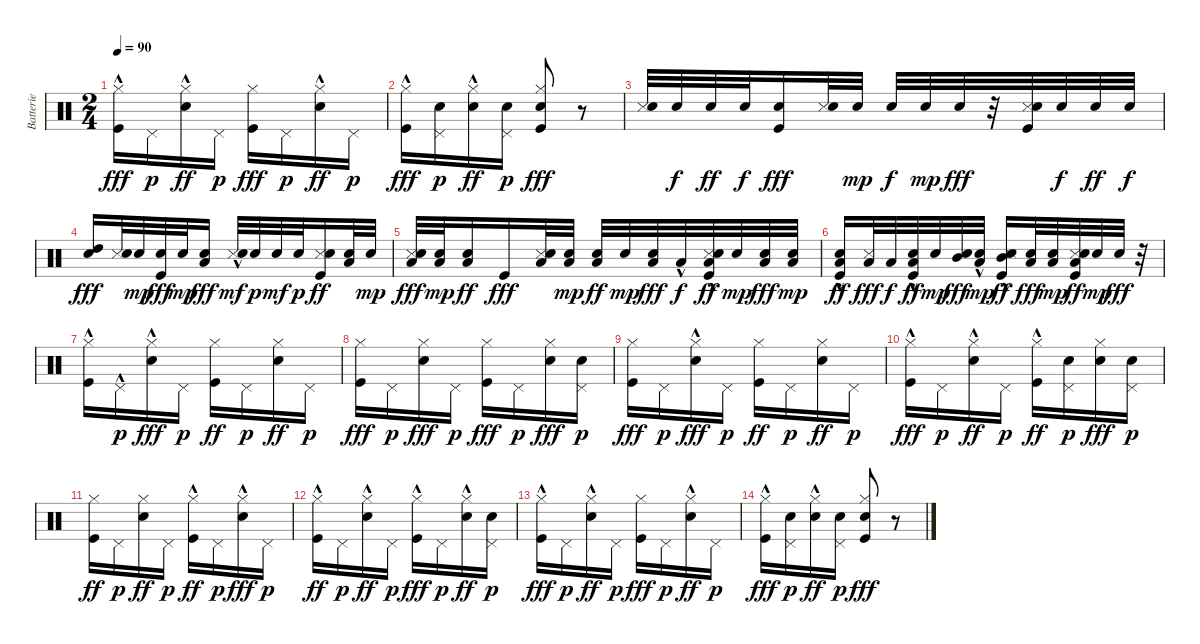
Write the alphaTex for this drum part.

\track ("Batterie" "Batterie") {instrument percussion}
\staff {score}
\articulation defaults
\ts (2 4)
\tempo 90
\clef neutral
\ks c
("Kick (hit)" "Hi-Hat (closed)"{hac}).16{dy fff} "Pedal Hi-Hat (hit)".16{dy p} ("Snare (hit) 2" "Hi-Hat (closed)"{hac}).16{dy ff} "Pedal Hi-Hat (hit)".16{dy p} ("Kick (hit)" "Hi-Hat (closed)").16{dy fff} "Pedal Hi-Hat (hit)".16{dy p} ("Snare (hit) 2" "Hi-Hat (closed)"{hac}).16{dy ff} "Pedal Hi-Hat (hit)".16{dy p} |
("Kick (hit)" "Hi-Hat (closed)"{hac}).16{dy fff} ("Snare (hit) 2" "Pedal Hi-Hat (hit)").16{dy p} ("Snare (hit) 2" "Hi-Hat (closed)"{hac}).16{dy ff} ("Snare (hit) 2" "Pedal Hi-Hat (hit)").16{dy p} ("Kick (hit)" "Snare (hit) 2" "Hi-Hat (closed)").8{dy fff} r.8 |
("Snare (side stick) 3" "Snare (hit) 2").32 "Snare (hit) 2".32{dy f} "Snare (hit) 2".32{dy ff} "Snare (hit) 2".32{dy f} ("Kick (hit)" "Snare (hit) 2").16{dy fff} ("Snare (side stick) 3" "Snare (hit) 2").32 "Snare (hit) 2".32{dy mp} "Snare (hit) 2".32{dy f} "Snare (hit) 2".32{dy mp} "Snare (hit) 2".32{dy fff} r.32 ("Kick (hit)" "Snare (side stick) 3" "Snare (hit) 2").32 "Snare (hit) 2".32{dy f} "Snare (hit) 2".32{dy ff} "Snare (hit) 2".32{dy f} |
("Snare (hit) 2" "High Tom (hit)").16{dy fff} ("Snare (side stick) 3" "Snare (hit) 2").32 "Snare (hit) 2".32{dy mp} ("Kick (hit)" "Snare (hit) 2").32{dy fff} "Snare (hit) 2".32{dy mp} ("Snare (hit) 2" "Low Tom (hit)").16{dy fff} ("Snare (side stick) 3"{hac} "Snare (hit) 2").32{dy mf} "Snare (hit) 2".32{dy p} "Snare (hit) 2".32{dy mf} "Snare (hit) 2".32{dy p} ("Kick (hit)" "Snare (side stick) 3" "Snare (hit) 2").16{dy ff} ("Snare (hit) 2" "Low Tom (hit)").32 "Snare (hit) 2".32{dy mp} |
("Snare (side stick) 3" "Snare (hit) 2" "Low Floor Tom (hit)").32{dy fff} ("Snare (hit) 2" "Low Tom (hit)").32{dy mp} ("Snare (hit) 2" "Low Floor Tom (hit)").16{dy ff} "Kick (hit)".16{dy fff} ("Snare (side stick) 3" "Snare (hit) 2" "Low Tom (hit)").32 ("Snare (hit) 2" "Low Tom (hit)").32{dy mp} ("Snare (hit) 2" "Low Tom (hit)").32{dy ff} "Snare (hit) 2".32{dy mp} ("Snare (hit) 2" "Low Floor Tom (hit)").32{dy fff} "Low Floor Tom (hit)"{hac}.32{dy f} ("Kick (hit)"{hac} "Snare (side stick) 3" "Snare (hit) 2" "Low Tom (hit)").32{dy ff} "Snare (hit) 2".32{dy mp} ("Snare (hit) 2" "Low Tom (hit)").32{dy fff} ("Snare (hit) 2" "Low Tom (hit)").32{dy mp} |
("Kick (hit)"{hac} "Snare (hit) 2" "Low Tom (hit)").16{dy ff} ("Snare (side stick) 3" "Low Floor Tom (hit)").32{dy fff} "Low Floor Tom (hit)".32{dy f} ("Kick (hit)"{hac} "Snare (hit) 2" "Low Floor Tom (hit)").32{dy ff} "Snare (hit) 2".32{dy mp} ("Snare (hit) 2" "Mid Tom (hit)").32{dy fff} ("Snare (hit) 2" "Low Tom (hit)"{hac}).32{dy mp} ("Kick (hit)"{hac} "Snare (side stick) 3" "Snare (hit) 2" "Mid Tom (hit)").16{dy ff} ("Snare (hit) 2" "Low Tom (hit)").32{dy fff} ("Snare (hit) 2" "Low Tom (hit)").32{dy mp} ("Kick (hit)" "Snare (side stick) 3" "Snare (hit) 2" "Low Tom (hit)").32{dy ff} "Snare (hit) 2".32{dy mp} "Snare (hit) 2".32{dy fff} r.32 |
("Kick (hit)" "Hi-Hat (closed)"{hac}).16 "Pedal Hi-Hat (hit)"{hac}.16{dy p} ("Snare (hit) 2" "Hi-Hat (closed)"{hac}).16{dy fff} "Pedal Hi-Hat (hit)".16{dy p} ("Kick (hit)" "Hi-Hat (closed)").16{dy ff} "Pedal Hi-Hat (hit)".16{dy p} ("Snare (hit) 2" "Hi-Hat (closed)").16{dy ff} "Pedal Hi-Hat (hit)".16{dy p} |
("Kick (hit)" "Hi-Hat (closed)").16{dy fff} "Pedal Hi-Hat (hit)".16{dy p} ("Snare (hit) 2" "Hi-Hat (closed)").16{dy fff} "Pedal Hi-Hat (hit)".16{dy p} ("Kick (hit)" "Hi-Hat (closed)").16{dy fff} "Pedal Hi-Hat (hit)".16{dy p} ("Snare (hit) 2" "Hi-Hat (closed)").16{dy fff} ("Snare (hit) 2" "Pedal Hi-Hat (hit)").16{dy p} |
("Kick (hit)" "Hi-Hat (closed)").16{dy fff} "Pedal Hi-Hat (hit)".16{dy p} ("Snare (hit) 2" "Hi-Hat (closed)"{hac}).16{dy fff} "Pedal Hi-Hat (hit)".16{dy p} ("Kick (hit)" "Hi-Hat (closed)").16{dy ff} "Pedal Hi-Hat (hit)".16{dy p} ("Snare (hit) 2" "Hi-Hat (closed)").16{dy ff} "Pedal Hi-Hat (hit)".16{dy p} |
("Kick (hit)" "Hi-Hat (closed)"{hac}).16{dy fff} "Pedal Hi-Hat (hit)".16{dy p} ("Snare (hit) 2" "Hi-Hat (closed)"{hac}).16{dy ff} "Pedal Hi-Hat (hit)".16{dy p} ("Kick (hit)" "Hi-Hat (closed)"{hac}).16{dy ff} ("Snare (hit) 2" "Pedal Hi-Hat (hit)").16{dy p} ("Snare (hit) 2" "Hi-Hat (closed)").16{dy fff} ("Snare (hit) 2" "Pedal Hi-Hat (hit)").16{dy p} |
("Kick (hit)" "Hi-Hat (closed)").16{dy ff} "Pedal Hi-Hat (hit)".16{dy p} ("Snare (hit) 2" "Hi-Hat (closed)").16{dy ff} "Pedal Hi-Hat (hit)".16{dy p} ("Kick (hit)" "Hi-Hat (closed)"{hac}).16{dy ff} "Pedal Hi-Hat (hit)".16{dy p} ("Snare (hit) 2" "Hi-Hat (closed)"{hac}).16{dy fff} "Pedal Hi-Hat (hit)".16{dy p} |
("Kick (hit)" "Hi-Hat (closed)"{hac}).16{dy ff} "Pedal Hi-Hat (hit)".16{dy p} ("Snare (hit) 2" "Hi-Hat (closed)"{hac}).16{dy ff} "Pedal Hi-Hat (hit)".16{dy p} ("Kick (hit)" "Hi-Hat (closed)"{hac}).16{dy fff} "Pedal Hi-Hat (hit)".16{dy p} ("Snare (hit) 2" "Hi-Hat (closed)"{hac}).16{dy ff} ("Snare (hit) 2" "Pedal Hi-Hat (hit)").16{dy p} |
("Kick (hit)" "Hi-Hat (closed)"{hac}).16{dy fff} "Pedal Hi-Hat (hit)".16{dy p} ("Snare (hit) 2" "Hi-Hat (closed)"{hac}).16{dy ff} "Pedal Hi-Hat (hit)".16{dy p} ("Kick (hit)" "Hi-Hat (closed)").16{dy fff} "Pedal Hi-Hat (hit)".16{dy p} ("Snare (hit) 2" "Hi-Hat (closed)"{hac}).16{dy ff} "Pedal Hi-Hat (hit)".16{dy p} |
("Kick (hit)" "Hi-Hat (closed)"{hac}).16{dy fff} ("Snare (hit) 2" "Pedal Hi-Hat (hit)").16{dy p} ("Snare (hit) 2" "Hi-Hat (closed)"{hac}).16{dy ff} ("Snare (hit) 2" "Pedal Hi-Hat (hit)").16{dy p} ("Kick (hit)" "Snare (hit) 2" "Hi-Hat (closed)").8{dy fff} r.8
